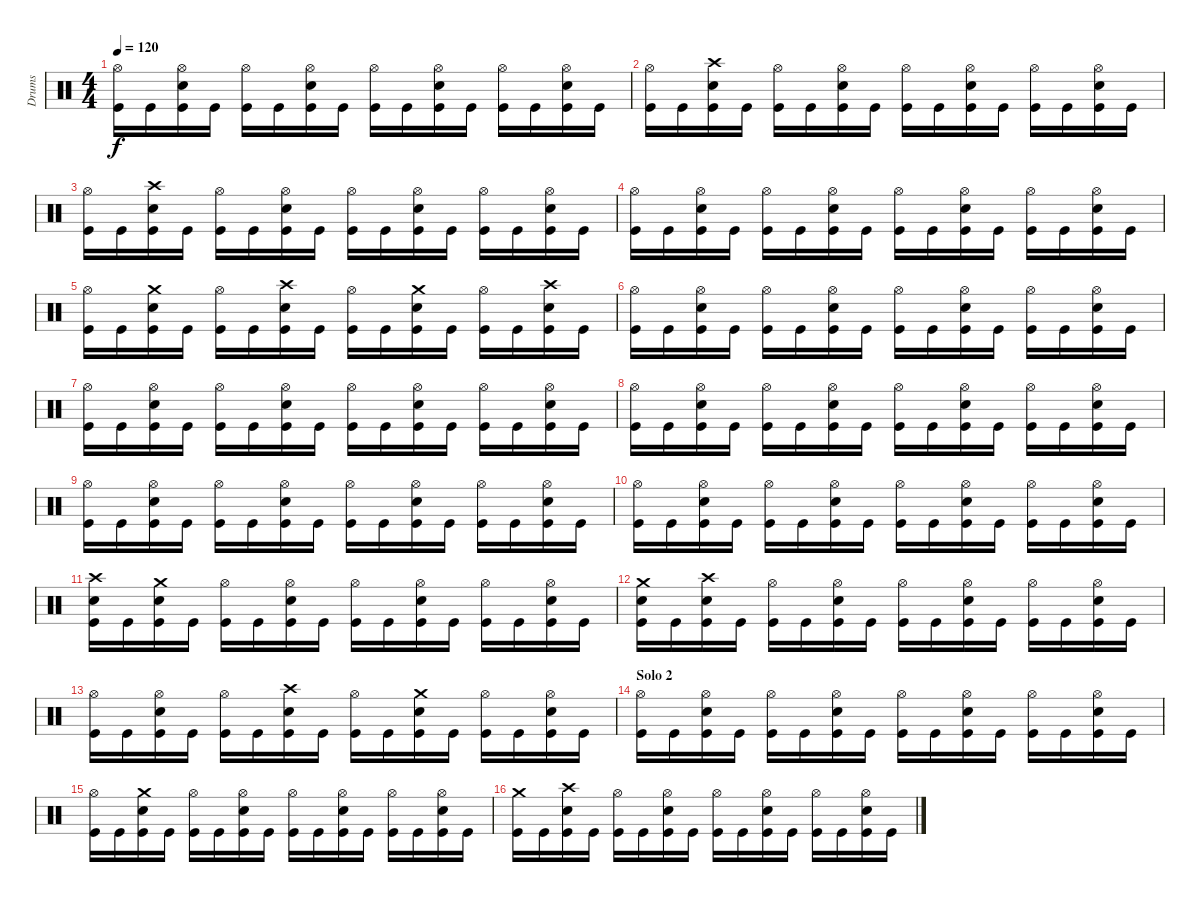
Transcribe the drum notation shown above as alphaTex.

\track ("Drums" "Drums") {instrument percussion}
\staff {score}
\articulation defaults
\ts (4 4)
\tempo 120
\clef neutral
\ks c
("Hi-Hat (open)" "Kick (hit)").16{dy f} "Kick (hit)".16 ("Hi-Hat (open)" "Snare (hit) 2" "Kick (hit)").16 "Kick (hit)".16 ("Hi-Hat (open)" "Kick (hit)").16 "Kick (hit)".16 ("Hi-Hat (open)" "Snare (hit) 2" "Kick (hit)").16 "Kick (hit)".16 ("Hi-Hat (open)" "Kick (hit)").16 "Kick (hit)".16 ("Hi-Hat (open)" "Snare (hit) 2" "Kick (hit)").16 "Kick (hit)".16 ("Hi-Hat (open)" "Kick (hit)").16 "Kick (hit)".16 ("Hi-Hat (open)" "Snare (hit) 2" "Kick (hit)").16 "Kick (hit)".16 |
("Hi-Hat (open)" "Kick (hit)").16 "Kick (hit)".16 ("Crash high (hit)" "Snare (hit) 2" "Kick (hit)").16 "Kick (hit)".16 ("Hi-Hat (open)" "Kick (hit)").16 "Kick (hit)".16 ("Hi-Hat (open)" "Snare (hit) 2" "Kick (hit)").16 "Kick (hit)".16 ("Hi-Hat (open)" "Kick (hit)").16 "Kick (hit)".16 ("Hi-Hat (open)" "Snare (hit) 2" "Kick (hit)").16 "Kick (hit)".16 ("Hi-Hat (open)" "Kick (hit)").16 "Kick (hit)".16 ("Hi-Hat (open)" "Snare (hit) 2" "Kick (hit)").16 "Kick (hit)".16 |
("Hi-Hat (open)" "Kick (hit)").16 "Kick (hit)".16 ("Crash high (hit)" "Snare (hit) 2" "Kick (hit)").16 "Kick (hit)".16 ("Hi-Hat (open)" "Kick (hit)").16 "Kick (hit)".16 ("Hi-Hat (open)" "Snare (hit) 2" "Kick (hit)").16 "Kick (hit)".16 ("Hi-Hat (open)" "Kick (hit)").16 "Kick (hit)".16 ("Hi-Hat (open)" "Snare (hit) 2" "Kick (hit)").16 "Kick (hit)".16 ("Hi-Hat (open)" "Kick (hit)").16 "Kick (hit)".16 ("Hi-Hat (open)" "Snare (hit) 2" "Kick (hit)").16 "Kick (hit)".16 |
("Hi-Hat (open)" "Kick (hit)").16 "Kick (hit)".16 ("Hi-Hat (open)" "Snare (hit) 2" "Kick (hit)").16 "Kick (hit)".16 ("Hi-Hat (open)" "Kick (hit)").16 "Kick (hit)".16 ("Hi-Hat (open)" "Snare (hit) 2" "Kick (hit)").16 "Kick (hit)".16 ("Hi-Hat (open)" "Kick (hit)").16 "Kick (hit)".16 ("Hi-Hat (open)" "Snare (hit) 2" "Kick (hit)").16 "Kick (hit)".16 ("Hi-Hat (open)" "Kick (hit)").16 "Kick (hit)".16 ("Hi-Hat (open)" "Snare (hit) 2" "Kick (hit)").16 "Kick (hit)".16 |
("Hi-Hat (open)" "Kick (hit)").16 "Kick (hit)".16 ("Crash medium (hit)" "Snare (hit) 2" "Kick (hit)").16 "Kick (hit)".16 ("Hi-Hat (open)" "Kick (hit)").16 "Kick (hit)".16 ("Crash high (hit)" "Snare (hit) 2" "Kick (hit)").16 "Kick (hit)".16 ("Hi-Hat (open)" "Kick (hit)").16 "Kick (hit)".16 ("Crash medium (hit)" "Snare (hit) 2" "Kick (hit)").16 "Kick (hit)".16 ("Hi-Hat (open)" "Kick (hit)").16 "Kick (hit)".16 ("Crash high (hit)" "Snare (hit) 2" "Kick (hit)").16 "Kick (hit)".16 |
("Hi-Hat (open)" "Kick (hit)").16 "Kick (hit)".16 ("Hi-Hat (open)" "Snare (hit) 2" "Kick (hit)").16 "Kick (hit)".16 ("Hi-Hat (open)" "Kick (hit)").16 "Kick (hit)".16 ("Hi-Hat (open)" "Snare (hit) 2" "Kick (hit)").16 "Kick (hit)".16 ("Hi-Hat (open)" "Kick (hit)").16 "Kick (hit)".16 ("Hi-Hat (open)" "Snare (hit) 2" "Kick (hit)").16 "Kick (hit)".16 ("Hi-Hat (open)" "Kick (hit)").16 "Kick (hit)".16 ("Hi-Hat (open)" "Snare (hit) 2" "Kick (hit)").16 "Kick (hit)".16 |
("Hi-Hat (open)" "Kick (hit)").16 "Kick (hit)".16 ("Hi-Hat (open)" "Snare (hit) 2" "Kick (hit)").16 "Kick (hit)".16 ("Hi-Hat (open)" "Kick (hit)").16 "Kick (hit)".16 ("Hi-Hat (open)" "Snare (hit) 2" "Kick (hit)").16 "Kick (hit)".16 ("Hi-Hat (open)" "Kick (hit)").16 "Kick (hit)".16 ("Hi-Hat (open)" "Snare (hit) 2" "Kick (hit)").16 "Kick (hit)".16 ("Hi-Hat (open)" "Kick (hit)").16 "Kick (hit)".16 ("Hi-Hat (open)" "Snare (hit) 2" "Kick (hit)").16 "Kick (hit)".16 |
("Hi-Hat (open)" "Kick (hit)").16 "Kick (hit)".16 ("Hi-Hat (open)" "Snare (hit) 2" "Kick (hit)").16 "Kick (hit)".16 ("Hi-Hat (open)" "Kick (hit)").16 "Kick (hit)".16 ("Hi-Hat (open)" "Snare (hit) 2" "Kick (hit)").16 "Kick (hit)".16 ("Hi-Hat (open)" "Kick (hit)").16 "Kick (hit)".16 ("Hi-Hat (open)" "Snare (hit) 2" "Kick (hit)").16 "Kick (hit)".16 ("Hi-Hat (open)" "Kick (hit)").16 "Kick (hit)".16 ("Hi-Hat (open)" "Snare (hit) 2" "Kick (hit)").16 "Kick (hit)".16 |
("Hi-Hat (open)" "Kick (hit)").16 "Kick (hit)".16 ("Hi-Hat (open)" "Snare (hit) 2" "Kick (hit)").16 "Kick (hit)".16 ("Hi-Hat (open)" "Kick (hit)").16 "Kick (hit)".16 ("Hi-Hat (open)" "Snare (hit) 2" "Kick (hit)").16 "Kick (hit)".16 ("Hi-Hat (open)" "Kick (hit)").16 "Kick (hit)".16 ("Hi-Hat (open)" "Snare (hit) 2" "Kick (hit)").16 "Kick (hit)".16 ("Hi-Hat (open)" "Kick (hit)").16 "Kick (hit)".16 ("Hi-Hat (open)" "Snare (hit) 2" "Kick (hit)").16 "Kick (hit)".16 |
("Hi-Hat (open)" "Kick (hit)").16 "Kick (hit)".16 ("Hi-Hat (open)" "Snare (hit) 2" "Kick (hit)").16 "Kick (hit)".16 ("Hi-Hat (open)" "Kick (hit)").16 "Kick (hit)".16 ("Hi-Hat (open)" "Snare (hit) 2" "Kick (hit)").16 "Kick (hit)".16 ("Hi-Hat (open)" "Kick (hit)").16 "Kick (hit)".16 ("Hi-Hat (open)" "Snare (hit) 2" "Kick (hit)").16 "Kick (hit)".16 ("Hi-Hat (open)" "Kick (hit)").16 "Kick (hit)".16 ("Hi-Hat (open)" "Snare (hit) 2" "Kick (hit)").16 "Kick (hit)".16 |
("Crash high (hit)" "Snare (hit) 2" "Kick (hit)").16 "Kick (hit)".16 ("Crash medium (hit)" "Snare (hit) 2" "Kick (hit)").16 "Kick (hit)".16 ("Hi-Hat (open)" "Kick (hit)").16 "Kick (hit)".16 ("Hi-Hat (open)" "Snare (hit) 2" "Kick (hit)").16 "Kick (hit)".16 ("Hi-Hat (open)" "Kick (hit)").16 "Kick (hit)".16 ("Hi-Hat (open)" "Snare (hit) 2" "Kick (hit)").16 "Kick (hit)".16 ("Hi-Hat (open)" "Kick (hit)").16 "Kick (hit)".16 ("Hi-Hat (open)" "Snare (hit) 2" "Kick (hit)").16 "Kick (hit)".16 |
("Crash medium (hit)" "Snare (hit) 2" "Kick (hit)").16 "Kick (hit)".16 ("Crash high (hit)" "Snare (hit) 2" "Kick (hit)").16 "Kick (hit)".16 ("Hi-Hat (open)" "Kick (hit)").16 "Kick (hit)".16 ("Hi-Hat (open)" "Snare (hit) 2" "Kick (hit)").16 "Kick (hit)".16 ("Hi-Hat (open)" "Kick (hit)").16 "Kick (hit)".16 ("Hi-Hat (open)" "Snare (hit) 2" "Kick (hit)").16 "Kick (hit)".16 ("Hi-Hat (open)" "Kick (hit)").16 "Kick (hit)".16 ("Hi-Hat (open)" "Snare (hit) 2" "Kick (hit)").16 "Kick (hit)".16 |
("Hi-Hat (open)" "Kick (hit)").16 "Kick (hit)".16 ("Hi-Hat (open)" "Snare (hit) 2" "Kick (hit)").16 "Kick (hit)".16 ("Hi-Hat (open)" "Kick (hit)").16 "Kick (hit)".16 ("Crash high (hit)" "Snare (hit) 2" "Kick (hit)").16 "Kick (hit)".16 ("Hi-Hat (open)" "Kick (hit)").16 "Kick (hit)".16 ("Crash medium (hit)" "Snare (hit) 2" "Kick (hit)").16 "Kick (hit)".16 ("Hi-Hat (open)" "Kick (hit)").16 "Kick (hit)".16 ("Hi-Hat (open)" "Snare (hit) 2" "Kick (hit)").16 "Kick (hit)".16 |
\section ("" "Solo 2")
("Hi-Hat (open)" "Kick (hit)").16 "Kick (hit)".16 ("Hi-Hat (open)" "Snare (hit) 2" "Kick (hit)").16 "Kick (hit)".16 ("Hi-Hat (open)" "Kick (hit)").16 "Kick (hit)".16 ("Hi-Hat (open)" "Snare (hit) 2" "Kick (hit)").16 "Kick (hit)".16 ("Hi-Hat (open)" "Kick (hit)").16 "Kick (hit)".16 ("Hi-Hat (open)" "Snare (hit) 2" "Kick (hit)").16 "Kick (hit)".16 ("Hi-Hat (open)" "Kick (hit)").16 "Kick (hit)".16 ("Hi-Hat (open)" "Snare (hit) 2" "Kick (hit)").16 "Kick (hit)".16 |
("Hi-Hat (open)" "Kick (hit)").16 "Kick (hit)".16 ("Crash medium (hit)" "Snare (hit) 2" "Kick (hit)").16 "Kick (hit)".16 ("Hi-Hat (open)" "Kick (hit)").16 "Kick (hit)".16 ("Hi-Hat (open)" "Snare (hit) 2" "Kick (hit)").16 "Kick (hit)".16 ("Hi-Hat (open)" "Kick (hit)").16 "Kick (hit)".16 ("Hi-Hat (open)" "Snare (hit) 2" "Kick (hit)").16 "Kick (hit)".16 ("Hi-Hat (open)" "Kick (hit)").16 "Kick (hit)".16 ("Hi-Hat (open)" "Snare (hit) 2" "Kick (hit)").16 "Kick (hit)".16 |
("Crash medium (hit)" "Kick (hit)").16 "Kick (hit)".16 ("Crash high (hit)" "Snare (hit) 2" "Kick (hit)").16 "Kick (hit)".16 ("Hi-Hat (open)" "Kick (hit)").16 "Kick (hit)".16 ("Hi-Hat (open)" "Snare (hit) 2" "Kick (hit)").16 "Kick (hit)".16 ("Hi-Hat (open)" "Kick (hit)").16 "Kick (hit)".16 ("Hi-Hat (open)" "Snare (hit) 2" "Kick (hit)").16 "Kick (hit)".16 ("Hi-Hat (open)" "Kick (hit)").16 "Kick (hit)".16 ("Hi-Hat (open)" "Snare (hit) 2" "Kick (hit)").16 "Kick (hit)".16
